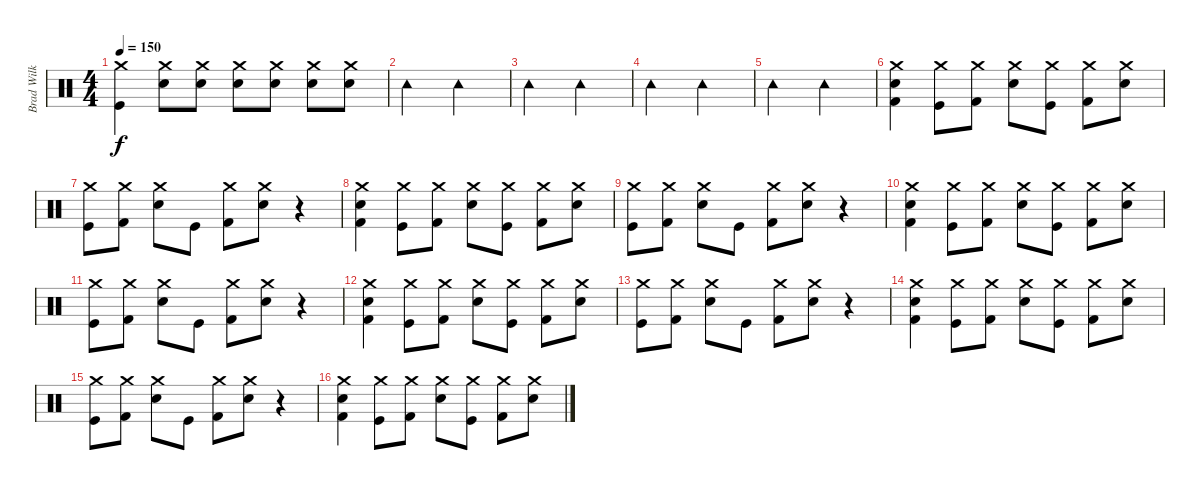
\track ("Brad Wilk" "Brad Wilk") {instrument percussion}
\staff {score}
\articulation defaults
\ts (4 4)
\tempo 150
\clef neutral
\ks c
("Crash medium (hit)" "Kick (hit)").4{dy f} ("Crash medium (hit)" "Electric Snare (hit)").8 ("Crash medium (hit)" "Electric Snare (hit)").8 ("Crash medium (hit)" "Electric Snare (hit)").8 ("Crash medium (hit)" "Electric Snare (hit)").8 ("Crash medium (hit)" "Electric Snare (hit)").8 ("Crash medium (hit)" "Electric Snare (hit)").8 |
"Tambourine (hit)".2 "Tambourine (hit)".2 |
"Tambourine (hit)".2 "Tambourine (hit)".2 |
"Tambourine (hit)".2 "Tambourine (hit)".2 |
"Tambourine (hit)".2 "Tambourine (hit)".2 |
("Snare (hit) 2" "Kick (hit) 2" "Crash medium (hit)").4 ("Kick (hit)" "Crash medium (hit)").8 ("Kick (hit) 2" "Crash medium (hit)").8 ("Snare (hit) 2" "Crash medium (hit)").8 ("Kick (hit)" "Crash medium (hit)").8 ("Kick (hit) 2" "Crash medium (hit)").8 ("Snare (hit) 2" "Crash medium (hit)").8 |
("Kick (hit)" "Crash medium (hit)").8 ("Kick (hit) 2" "Crash medium (hit)").8 ("Snare (hit) 2" "Crash medium (hit)").8 "Kick (hit)".8 ("Kick (hit) 2" "Crash medium (hit)").8 ("Snare (hit) 2" "Crash medium (hit)").8 r.4 |
("Snare (hit) 2" "Kick (hit) 2" "Crash medium (hit)").4 ("Kick (hit)" "Crash medium (hit)").8 ("Kick (hit) 2" "Crash medium (hit)").8 ("Snare (hit) 2" "Crash medium (hit)").8 ("Kick (hit)" "Crash medium (hit)").8 ("Kick (hit) 2" "Crash medium (hit)").8 ("Snare (hit) 2" "Crash medium (hit)").8 |
("Kick (hit)" "Crash medium (hit)").8 ("Kick (hit) 2" "Crash medium (hit)").8 ("Snare (hit) 2" "Crash medium (hit)").8 "Kick (hit)".8 ("Kick (hit) 2" "Crash medium (hit)").8 ("Snare (hit) 2" "Crash medium (hit)").8 r.4 |
("Snare (hit) 2" "Kick (hit) 2" "Crash medium (hit)").4 ("Kick (hit)" "Crash medium (hit)").8 ("Kick (hit) 2" "Crash medium (hit)").8 ("Snare (hit) 2" "Crash medium (hit)").8 ("Kick (hit)" "Crash medium (hit)").8 ("Kick (hit) 2" "Crash medium (hit)").8 ("Snare (hit) 2" "Crash medium (hit)").8 |
("Kick (hit)" "Crash medium (hit)").8 ("Kick (hit) 2" "Crash medium (hit)").8 ("Snare (hit) 2" "Crash medium (hit)").8 "Kick (hit)".8 ("Kick (hit) 2" "Crash medium (hit)").8 ("Snare (hit) 2" "Crash medium (hit)").8 r.4 |
("Snare (hit) 2" "Kick (hit) 2" "Crash medium (hit)").4 ("Kick (hit)" "Crash medium (hit)").8 ("Kick (hit) 2" "Crash medium (hit)").8 ("Snare (hit) 2" "Crash medium (hit)").8 ("Kick (hit)" "Crash medium (hit)").8 ("Kick (hit) 2" "Crash medium (hit)").8 ("Snare (hit) 2" "Crash medium (hit)").8 |
("Kick (hit)" "Crash medium (hit)").8 ("Kick (hit) 2" "Crash medium (hit)").8 ("Snare (hit) 2" "Crash medium (hit)").8 "Kick (hit)".8 ("Kick (hit) 2" "Crash medium (hit)").8 ("Snare (hit) 2" "Crash medium (hit)").8 r.4 |
("Snare (hit) 2" "Kick (hit) 2" "Crash medium (hit)").4 ("Kick (hit)" "Crash medium (hit)").8 ("Kick (hit) 2" "Crash medium (hit)").8 ("Snare (hit) 2" "Crash medium (hit)").8 ("Kick (hit)" "Crash medium (hit)").8 ("Kick (hit) 2" "Crash medium (hit)").8 ("Snare (hit) 2" "Crash medium (hit)").8 |
("Kick (hit)" "Crash medium (hit)").8 ("Kick (hit) 2" "Crash medium (hit)").8 ("Snare (hit) 2" "Crash medium (hit)").8 "Kick (hit)".8 ("Kick (hit) 2" "Crash medium (hit)").8 ("Snare (hit) 2" "Crash medium (hit)").8 r.4 |
("Snare (hit) 2" "Kick (hit) 2" "Crash medium (hit)").4 ("Kick (hit)" "Crash medium (hit)").8 ("Kick (hit) 2" "Crash medium (hit)").8 ("Snare (hit) 2" "Crash medium (hit)").8 ("Kick (hit)" "Crash medium (hit)").8 ("Kick (hit) 2" "Crash medium (hit)").8 ("Snare (hit) 2" "Crash medium (hit)").8
